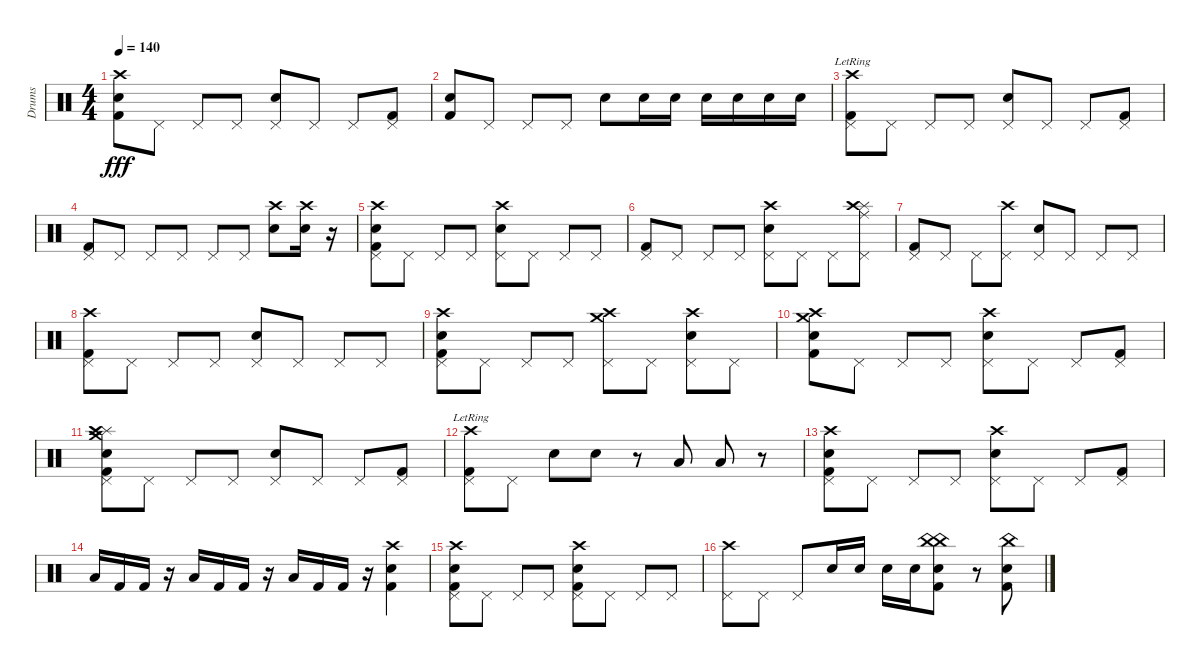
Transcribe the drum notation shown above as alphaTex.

\track ("Drums" "Drums") {instrument percussion}
\staff {score}
\articulation defaults
\ts (4 4)
\tempo 140
\clef neutral
\ks c
("Crash high (hit)" "Snare (hit) 2" "Kick (hit) 2").8{dy fff} "Pedal Hi-Hat (hit)".8 "Pedal Hi-Hat (hit)".8 "Pedal Hi-Hat (hit)".8 ("Pedal Hi-Hat (hit)" "Snare (hit) 2").8 "Pedal Hi-Hat (hit)".8 "Pedal Hi-Hat (hit)".8 ("Pedal Hi-Hat (hit)" "Kick (hit) 2").8 |
("Snare (hit) 2" "Kick (hit) 2").8 "Pedal Hi-Hat (hit)".8 "Pedal Hi-Hat (hit)".8 "Pedal Hi-Hat (hit)".8 "Snare (hit) 2".8 "Snare (hit) 2".16 "Snare (hit) 2".16 "Snare (hit) 2".16 "Snare (hit) 2".16 "Snare (hit) 2".16 "Snare (hit) 2".16 |
("Crash high (hit)"{lr} "Pedal Hi-Hat (hit)" "Kick (hit) 2").8 "Pedal Hi-Hat (hit)".8 "Pedal Hi-Hat (hit)".8 "Pedal Hi-Hat (hit)".8 ("Pedal Hi-Hat (hit)" "Snare (hit) 2").8 "Pedal Hi-Hat (hit)".8 "Pedal Hi-Hat (hit)".8 ("Pedal Hi-Hat (hit)" "Kick (hit) 2").8 |
("Pedal Hi-Hat (hit)" "Kick (hit) 2").8 "Pedal Hi-Hat (hit)".8 "Pedal Hi-Hat (hit)".8 "Pedal Hi-Hat (hit)".8 "Pedal Hi-Hat (hit)".8 "Pedal Hi-Hat (hit)".8 ("Crash high (hit)" "Snare (hit) 2").8 ("Crash high (hit)" "Snare (hit) 2").16 r.16 |
("Kick (hit) 2" "Crash high (hit)" "Pedal Hi-Hat (hit)" "Snare (hit) 2").8 "Pedal Hi-Hat (hit)".8 "Pedal Hi-Hat (hit)".8 "Pedal Hi-Hat (hit)".8 ("Crash high (hit)" "Pedal Hi-Hat (hit)" "Snare (hit) 2").8 "Pedal Hi-Hat (hit)".8 "Pedal Hi-Hat (hit)".8 "Pedal Hi-Hat (hit)".8 |
("Pedal Hi-Hat (hit)" "Kick (hit) 2").8 "Pedal Hi-Hat (hit)".8 "Pedal Hi-Hat (hit)".8 "Pedal Hi-Hat (hit)".8 ("Crash high (hit)" "Pedal Hi-Hat (hit)" "Snare (hit) 2").8 "Pedal Hi-Hat (hit)".8 "Pedal Hi-Hat (hit)".8 ("Splash (hit)" "Crash high (hit)" "Ride (middle)" "Pedal Hi-Hat (hit)").8 |
("Pedal Hi-Hat (hit)" "Kick (hit) 2").8 "Pedal Hi-Hat (hit)".8 "Pedal Hi-Hat (hit)".8 ("Crash high (hit)" "Pedal Hi-Hat (hit)").8 ("Pedal Hi-Hat (hit)" "Snare (hit) 2").8 "Pedal Hi-Hat (hit)".8 "Pedal Hi-Hat (hit)".8 "Pedal Hi-Hat (hit)".8 |
("Crash high (hit)" "Pedal Hi-Hat (hit)" "Kick (hit) 2").8 "Pedal Hi-Hat (hit)".8 "Pedal Hi-Hat (hit)".8 "Pedal Hi-Hat (hit)".8 ("Pedal Hi-Hat (hit)" "Snare (hit) 2").8 "Pedal Hi-Hat (hit)".8 "Pedal Hi-Hat (hit)".8 "Pedal Hi-Hat (hit)".8 |
("Crash high (hit)" "Pedal Hi-Hat (hit)" "Snare (hit) 2" "Kick (hit) 2").8 "Pedal Hi-Hat (hit)".8 "Pedal Hi-Hat (hit)".8 "Pedal Hi-Hat (hit)".8 ("Crash medium (hit)" "Crash high (hit)" "Pedal Hi-Hat (hit)").8 "Pedal Hi-Hat (hit)".8 ("Crash high (hit)" "Pedal Hi-Hat (hit)" "Snare (hit) 2").8 "Pedal Hi-Hat (hit)".8 |
("Crash medium (hit)" "Crash high (hit)" "Snare (hit) 2" "Kick (hit) 2").8 "Pedal Hi-Hat (hit)".8 "Pedal Hi-Hat (hit)".8 "Pedal Hi-Hat (hit)".8 ("Crash high (hit)" "Pedal Hi-Hat (hit)" "Snare (hit) 2").8 "Pedal Hi-Hat (hit)".8 "Pedal Hi-Hat (hit)".8 ("Pedal Hi-Hat (hit)" "Kick (hit) 2").8 |
("Crash medium (hit)" "Splash (hit)" "Pedal Hi-Hat (hit)" "Crash high (hit)" "Snare (hit) 2" "Kick (hit) 2").8 "Pedal Hi-Hat (hit)".8 "Pedal Hi-Hat (hit)".8 "Pedal Hi-Hat (hit)".8 ("Pedal Hi-Hat (hit)" "Snare (hit) 2").8 "Pedal Hi-Hat (hit)".8 "Pedal Hi-Hat (hit)".8 ("Pedal Hi-Hat (hit)" "Kick (hit) 2").8 |
("Crash high (hit)"{lr} "Pedal Hi-Hat (hit)" "Kick (hit) 2").8 "Pedal Hi-Hat (hit)".8 "Snare (hit) 2".8 "Snare (hit) 2".8 r.8 "Low Floor Tom (hit)".8 "Low Floor Tom (hit)".8 r.8 |
("Crash high (hit)" "Pedal Hi-Hat (hit)" "Snare (hit) 2" "Kick (hit) 2").8 "Pedal Hi-Hat (hit)".8 "Pedal Hi-Hat (hit)".8 "Pedal Hi-Hat (hit)".8 ("Crash high (hit)" "Pedal Hi-Hat (hit)" "Snare (hit) 2").8 "Pedal Hi-Hat (hit)".8 "Pedal Hi-Hat (hit)".8 ("Pedal Hi-Hat (hit)" "Kick (hit) 2").8 |
"Low Floor Tom (hit)".16 "Kick (hit) 2".16 "Kick (hit) 2".16 r.16 "Low Floor Tom (hit)".16 "Kick (hit) 2".16 "Kick (hit) 2".16 r.16 "Low Floor Tom (hit)".16 "Kick (hit) 2".16 "Kick (hit) 2".16 r.16 ("Crash high (hit)" "Snare (hit) 2" "Kick (hit) 2").4 |
("Pedal Hi-Hat (hit)" "Crash high (hit)" "Snare (hit) 2" "Kick (hit) 2").8 "Pedal Hi-Hat (hit)".8 "Pedal Hi-Hat (hit)".8 "Pedal Hi-Hat (hit)".8 ("Pedal Hi-Hat (hit)" "Crash high (hit)" "Snare (hit) 2" "Kick (hit) 2").8 "Pedal Hi-Hat (hit)".8 "Pedal Hi-Hat (hit)".8 "Pedal Hi-Hat (hit)".8 |
("Crash high (hit)" "Pedal Hi-Hat (hit)").8 "Pedal Hi-Hat (hit)".8 "Pedal Hi-Hat (hit)".8 "Snare (hit) 2".16 "Snare (hit) 2".16 "Snare (hit) 2".16 "Snare (hit) 2".16 ("China (hit)" "China (hit)" "Kick (hit) 2" "Snare (hit) 2").8 r.8 ("China (hit)" "Kick (hit) 2" "Snare (hit) 2").8
